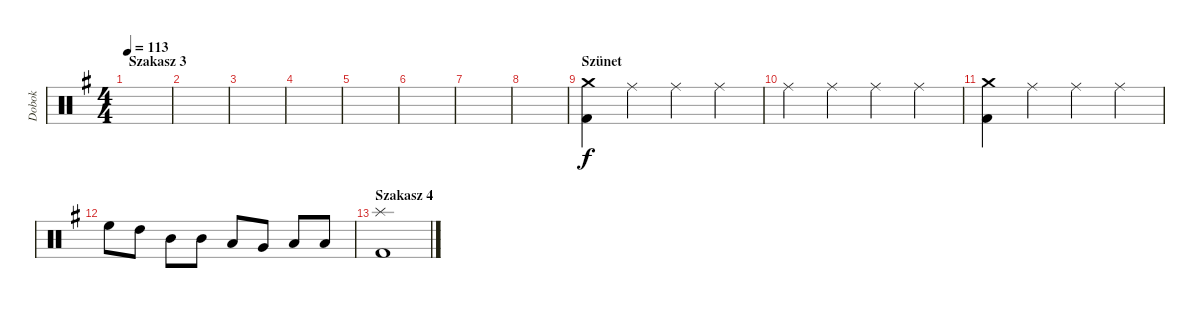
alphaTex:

\track ("Dobok" "Dobok") {instrument percussion}
\staff {score}
\articulation defaults
\ts (4 4)
\section ("" "Szakasz 3")
\tempo 113
\clef neutral
\ks g
|
|
|
|
|
|
|
|
\section ("" "Szünet")
("Crash medium (hit)" "Kick (hit) 2").4 "Ride (middle)".4 "Ride (middle)".4 "Ride (middle)".4 |
"Ride (middle)".4 "Ride (middle)".4 "Ride (middle)".4 "Ride (middle)".4 |
("Crash medium (hit)" "Kick (hit) 2").4 "Ride (middle)".4 "Ride (middle)".4 "Ride (middle)".4 |
"High Floor Tom (hit)".8 "High Tom (hit)".8 "Mid Tom (hit)".8 "Mid Tom (hit)".8 "Low Tom (hit)".8 "Very Low Tom (hit)".8 "Low Floor Tom (hit)".8 "Low Floor Tom (hit)".8 |
\section ("" "Szakasz 4")
("Splash (hit)" "Kick (hit) 2").1
